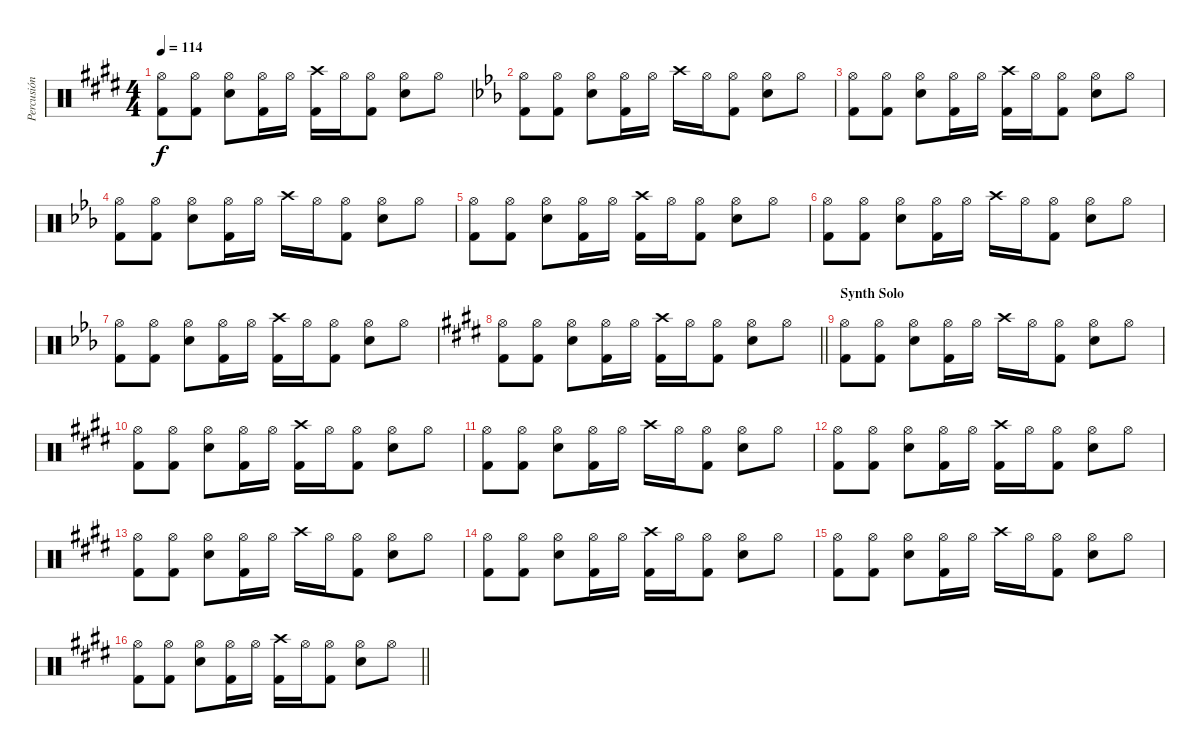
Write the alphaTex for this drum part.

\track ("Percusión" "Percusión") {instrument percussion}
\staff {score}
\articulation defaults
\ts (4 4)
\tempo 114
\clef neutral
\ks c#minor
("Hi-Hat (open)" "Kick (hit) 2").8{dy f} ("Hi-Hat (open)" "Kick (hit) 2").8 ("Hi-Hat (open)" "Snare (hit) 2").8 ("Hi-Hat (open)" "Kick (hit) 2").16 "Hi-Hat (open)".16 ("Crash high (hit)" "Kick (hit) 2").16 "Hi-Hat (open)".16 ("Hi-Hat (open)" "Kick (hit) 2").8 ("Hi-Hat (open)" "Snare (hit) 2").8 "Hi-Hat (open)".8 |
\ks eb
("Hi-Hat (open)" "Kick (hit) 2").8 ("Hi-Hat (open)" "Kick (hit) 2").8 ("Hi-Hat (open)" "Snare (hit) 2").8 ("Hi-Hat (open)" "Kick (hit) 2").16 "Hi-Hat (open)".16 "Crash high (hit)".16 "Hi-Hat (open)".16 ("Hi-Hat (open)" "Kick (hit) 2").8 ("Hi-Hat (open)" "Snare (hit) 2").8 "Hi-Hat (open)".8 |
("Hi-Hat (open)" "Kick (hit) 2").8 ("Hi-Hat (open)" "Kick (hit) 2").8 ("Hi-Hat (open)" "Snare (hit) 2").8 ("Hi-Hat (open)" "Kick (hit) 2").16 "Hi-Hat (open)".16 ("Crash high (hit)" "Kick (hit) 2").16 "Hi-Hat (open)".16 ("Hi-Hat (open)" "Kick (hit) 2").8 ("Hi-Hat (open)" "Snare (hit) 2").8 "Hi-Hat (open)".8 |
("Hi-Hat (open)" "Kick (hit) 2").8 ("Hi-Hat (open)" "Kick (hit) 2").8 ("Hi-Hat (open)" "Snare (hit) 2").8 ("Hi-Hat (open)" "Kick (hit) 2").16 "Hi-Hat (open)".16 "Crash high (hit)".16 "Hi-Hat (open)".16 ("Hi-Hat (open)" "Kick (hit) 2").8 ("Hi-Hat (open)" "Snare (hit) 2").8 "Hi-Hat (open)".8 |
("Hi-Hat (open)" "Kick (hit) 2").8 ("Hi-Hat (open)" "Kick (hit) 2").8 ("Hi-Hat (open)" "Snare (hit) 2").8 ("Hi-Hat (open)" "Kick (hit) 2").16 "Hi-Hat (open)".16 ("Crash high (hit)" "Kick (hit) 2").16 "Hi-Hat (open)".16 ("Hi-Hat (open)" "Kick (hit) 2").8 ("Hi-Hat (open)" "Snare (hit) 2").8 "Hi-Hat (open)".8 |
("Hi-Hat (open)" "Kick (hit) 2").8 ("Hi-Hat (open)" "Kick (hit) 2").8 ("Hi-Hat (open)" "Snare (hit) 2").8 ("Hi-Hat (open)" "Kick (hit) 2").16 "Hi-Hat (open)".16 "Crash high (hit)".16 "Hi-Hat (open)".16 ("Hi-Hat (open)" "Kick (hit) 2").8 ("Hi-Hat (open)" "Snare (hit) 2").8 "Hi-Hat (open)".8 |
("Hi-Hat (open)" "Kick (hit) 2").8 ("Hi-Hat (open)" "Kick (hit) 2").8 ("Hi-Hat (open)" "Snare (hit) 2").8 ("Hi-Hat (open)" "Kick (hit) 2").16 "Hi-Hat (open)".16 ("Crash high (hit)" "Kick (hit) 2").16 "Hi-Hat (open)".16 ("Hi-Hat (open)" "Kick (hit) 2").8 ("Hi-Hat (open)" "Snare (hit) 2").8 "Hi-Hat (open)".8 |
\barLineRight lightlight
\ks c#minor
("Hi-Hat (open)" "Kick (hit) 2").8 ("Hi-Hat (open)" "Kick (hit) 2").8 ("Hi-Hat (open)" "Snare (hit) 2").8 ("Hi-Hat (open)" "Kick (hit) 2").16 "Hi-Hat (open)".16 ("Crash high (hit)" "Kick (hit) 2").16 "Hi-Hat (open)".16 ("Hi-Hat (open)" "Kick (hit) 2").8 ("Hi-Hat (open)" "Snare (hit) 2").8 "Hi-Hat (open)".8 |
\section ("" "Synth Solo")
("Hi-Hat (open)" "Kick (hit) 2").8 ("Hi-Hat (open)" "Kick (hit) 2").8 ("Hi-Hat (open)" "Snare (hit) 2").8 ("Hi-Hat (open)" "Kick (hit) 2").16 "Hi-Hat (open)".16 "Crash high (hit)".16 "Hi-Hat (open)".16 ("Hi-Hat (open)" "Kick (hit) 2").8 ("Hi-Hat (open)" "Snare (hit) 2").8 "Hi-Hat (open)".8 |
("Hi-Hat (open)" "Kick (hit) 2").8 ("Hi-Hat (open)" "Kick (hit) 2").8 ("Hi-Hat (open)" "Snare (hit) 2").8 ("Hi-Hat (open)" "Kick (hit) 2").16 "Hi-Hat (open)".16 ("Crash high (hit)" "Kick (hit) 2").16 "Hi-Hat (open)".16 ("Hi-Hat (open)" "Kick (hit) 2").8 ("Hi-Hat (open)" "Snare (hit) 2").8 "Hi-Hat (open)".8 |
\ks e
("Hi-Hat (open)" "Kick (hit) 2").8 ("Hi-Hat (open)" "Kick (hit) 2").8 ("Hi-Hat (open)" "Snare (hit) 2").8 ("Hi-Hat (open)" "Kick (hit) 2").16 "Hi-Hat (open)".16 "Crash high (hit)".16 "Hi-Hat (open)".16 ("Hi-Hat (open)" "Kick (hit) 2").8 ("Hi-Hat (open)" "Snare (hit) 2").8 "Hi-Hat (open)".8 |
\ks c#minor
("Hi-Hat (open)" "Kick (hit) 2").8 ("Hi-Hat (open)" "Kick (hit) 2").8 ("Hi-Hat (open)" "Snare (hit) 2").8 ("Hi-Hat (open)" "Kick (hit) 2").16 "Hi-Hat (open)".16 ("Crash high (hit)" "Kick (hit) 2").16 "Hi-Hat (open)".16 ("Hi-Hat (open)" "Kick (hit) 2").8 ("Hi-Hat (open)" "Snare (hit) 2").8 "Hi-Hat (open)".8 |
("Hi-Hat (open)" "Kick (hit) 2").8 ("Hi-Hat (open)" "Kick (hit) 2").8 ("Hi-Hat (open)" "Snare (hit) 2").8 ("Hi-Hat (open)" "Kick (hit) 2").16 "Hi-Hat (open)".16 "Crash high (hit)".16 "Hi-Hat (open)".16 ("Hi-Hat (open)" "Kick (hit) 2").8 ("Hi-Hat (open)" "Snare (hit) 2").8 "Hi-Hat (open)".8 |
("Hi-Hat (open)" "Kick (hit) 2").8 ("Hi-Hat (open)" "Kick (hit) 2").8 ("Hi-Hat (open)" "Snare (hit) 2").8 ("Hi-Hat (open)" "Kick (hit) 2").16 "Hi-Hat (open)".16 ("Crash high (hit)" "Kick (hit) 2").16 "Hi-Hat (open)".16 ("Hi-Hat (open)" "Kick (hit) 2").8 ("Hi-Hat (open)" "Snare (hit) 2").8 "Hi-Hat (open)".8 |
\ks e
("Hi-Hat (open)" "Kick (hit) 2").8 ("Hi-Hat (open)" "Kick (hit) 2").8 ("Hi-Hat (open)" "Snare (hit) 2").8 ("Hi-Hat (open)" "Kick (hit) 2").16 "Hi-Hat (open)".16 "Crash high (hit)".16 "Hi-Hat (open)".16 ("Hi-Hat (open)" "Kick (hit) 2").8 ("Hi-Hat (open)" "Snare (hit) 2").8 "Hi-Hat (open)".8 |
\barLineRight lightlight
\ks c#minor
("Hi-Hat (open)" "Kick (hit) 2").8 ("Hi-Hat (open)" "Kick (hit) 2").8 ("Hi-Hat (open)" "Snare (hit) 2").8 ("Hi-Hat (open)" "Kick (hit) 2").16 "Hi-Hat (open)".16 ("Crash high (hit)" "Kick (hit) 2").16 "Hi-Hat (open)".16 ("Hi-Hat (open)" "Kick (hit) 2").8 ("Hi-Hat (open)" "Snare (hit) 2").8 "Hi-Hat (open)".8
